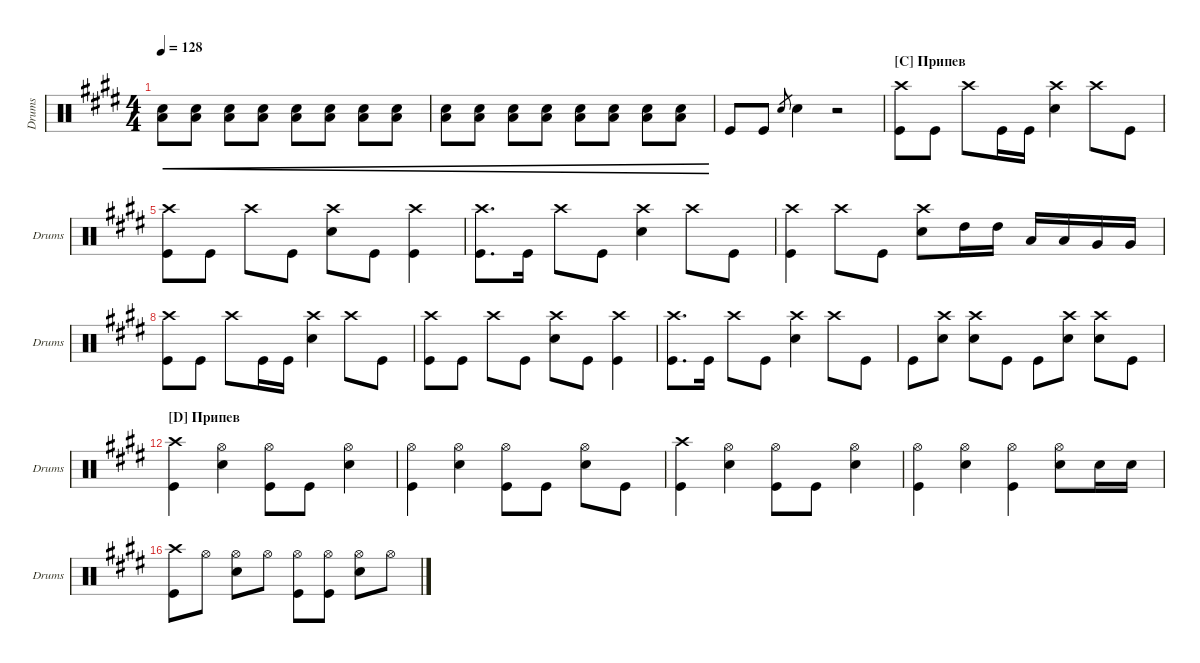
\defaultSystemsLayout 4
\hideDynamics
\bracketExtendMode groupsimilarinstruments
\singleTrackTrackNamePolicy allsystems
\multiTrackTrackNamePolicy allsystems
\otherSystemsTrackNameOrientation horizontal
\defaultBarNumberDisplay FirstOfSystem
\track ("Drumkit" "Drums") {instrument percussion}
\staff {score}
\articulation defaults
\ts (4 4)
\tempo 128
\clef neutral
\ks e
("Snare (hit) 2" "Low Tom (hit)").8{cre dy mf} ("Snare (hit) 2" "Low Tom (hit)").8{cre} ("Snare (hit) 2" "Low Tom (hit)").8{cre} ("Snare (hit) 2" "Low Tom (hit)").8{cre} ("Snare (hit) 2" "Low Tom (hit)").8{cre} ("Snare (hit) 2" "Low Tom (hit)").8{cre} ("Snare (hit) 2" "Low Tom (hit)").8{cre} ("Snare (hit) 2" "Low Tom (hit)").8{cre} |
("Snare (hit) 2" "Low Tom (hit)").8{cre} ("Snare (hit) 2" "Low Tom (hit)").8{cre} ("Snare (hit) 2" "Low Tom (hit)").8{cre} ("Snare (hit) 2" "Low Tom (hit)").8{cre} ("Snare (hit) 2" "Low Tom (hit)").8{cre} ("Snare (hit) 2" "Low Tom (hit)").8{cre} ("Snare (hit) 2" "Low Tom (hit)").8{cre} ("Snare (hit) 2" "Low Tom (hit)").8{cre} |
"Kick (hit)".8 "Kick (hit)".8 "Snare (hit) 2".8{gr} "Snare (hit) 2".4 r.2 |
\section ("C" "Припев")
("Kick (hit)" "Crash high (hit)").8 "Kick (hit)".8 "Crash high (hit)".8 "Kick (hit)".16 "Kick (hit)".16 ("Snare (hit) 2" "Crash high (hit)").4 "Crash high (hit)".8 "Kick (hit)".8 |
("Kick (hit)" "Crash high (hit)").8 "Kick (hit)".8 "Crash high (hit)".8 "Kick (hit)".8 ("Snare (hit) 2" "Crash high (hit)").8 "Kick (hit)".8 ("Crash high (hit)" "Kick (hit)").4 |
("Kick (hit)" "Crash high (hit)").8{d} "Kick (hit)".16 "Crash high (hit)".8 "Kick (hit)".8 ("Snare (hit) 2" "Crash high (hit)").4 "Crash high (hit)".8 "Kick (hit)".8 |
("Kick (hit)" "Crash high (hit)").4 "Crash high (hit)".8 "Kick (hit)".8 ("Snare (hit) 2" "Crash high (hit)").8 "High Tom (hit)".16 "High Tom (hit)".16 "Low Tom (hit)".16 "Low Tom (hit)".16 "Very Low Tom (hit)".16 "Very Low Tom (hit)".16 |
("Kick (hit)" "Crash high (hit)").8 "Kick (hit)".8 "Crash high (hit)".8 "Kick (hit)".16 "Kick (hit)".16 ("Snare (hit) 2" "Crash high (hit)").4 "Crash high (hit)".8 "Kick (hit)".8 |
("Kick (hit)" "Crash high (hit)").8 "Kick (hit)".8 "Crash high (hit)".8 "Kick (hit)".8 ("Snare (hit) 2" "Crash high (hit)").8 "Kick (hit)".8 ("Crash high (hit)" "Kick (hit)").4 |
("Kick (hit)" "Crash high (hit)").8{d} "Kick (hit)".16 "Crash high (hit)".8 "Kick (hit)".8 ("Snare (hit) 2" "Crash high (hit)").4 "Crash high (hit)".8 "Kick (hit)".8 |
"Kick (hit)".8 ("Snare (hit) 2" "Crash high (hit)").8 ("Snare (hit) 2" "Crash high (hit)").8 "Kick (hit)".8 "Kick (hit)".8 ("Snare (hit) 2" "Crash high (hit)").8 ("Snare (hit) 2" "Crash high (hit)").8 "Kick (hit)".8 |
\section ("D" "Припев")
("Kick (hit)" "Crash high (hit)").4 ("Hi-Hat (open)" "Snare (hit) 2").4 ("Hi-Hat (open)" "Kick (hit)").8 "Kick (hit)".8 ("Hi-Hat (open)" "Snare (hit) 2").4 |
("Kick (hit)" "Hi-Hat (open)").4 ("Hi-Hat (open)" "Snare (hit) 2").4 ("Hi-Hat (open)" "Kick (hit)").8 "Kick (hit)".8 ("Hi-Hat (open)" "Snare (hit) 2").8 "Kick (hit)".8 |
("Kick (hit)" "Crash high (hit)").4 ("Hi-Hat (open)" "Snare (hit) 2").4 ("Hi-Hat (open)" "Kick (hit)").8 "Kick (hit)".8 ("Hi-Hat (open)" "Snare (hit) 2").4 |
("Kick (hit)" "Hi-Hat (open)").4 ("Hi-Hat (open)" "Snare (hit) 2").4 ("Hi-Hat (open)" "Kick (hit)").4 ("Snare (hit) 2" "Hi-Hat (open)").8 "Snare (hit) 2".16 "Snare (hit) 2".16 |
("Kick (hit)" "Crash high (hit)").8 "Hi-Hat (open)".8 ("Hi-Hat (open)" "Snare (hit) 2").8 "Hi-Hat (open)".8 ("Hi-Hat (open)" "Kick (hit)").8 ("Kick (hit)" "Hi-Hat (open)").8 ("Hi-Hat (open)" "Snare (hit) 2").8 "Hi-Hat (open)".8
